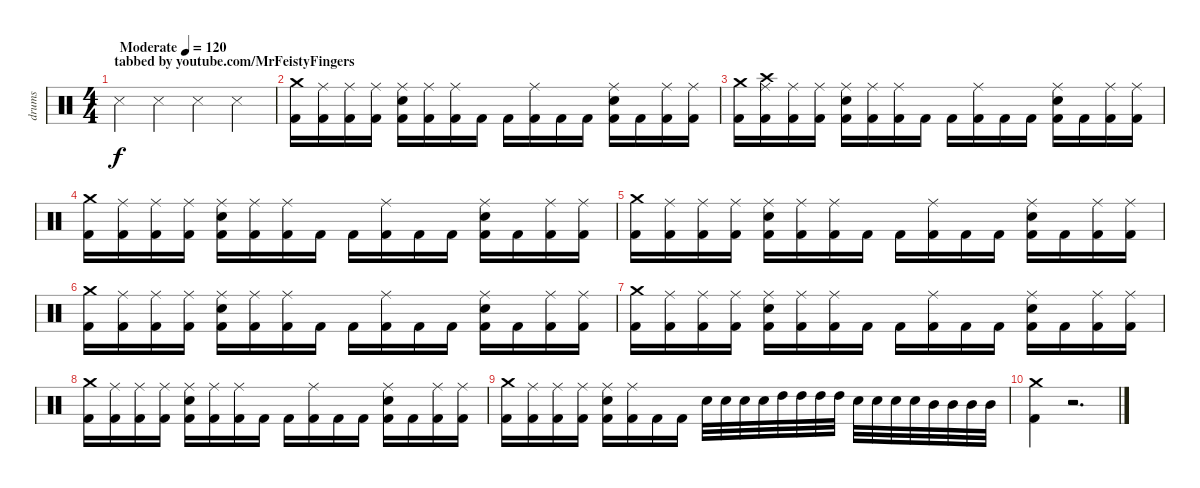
\track ("drums" "drums") {instrument percussion}
\staff {score}
\articulation defaults
\ts (4 4)
\section ("" "tabbed by youtube.com/MrFeistyFingers")
\tempo (120 "Moderate")
\clef neutral
\ks c "Snare (side stick) 3".4{dy f} "Snare (side stick) 3".4 "Snare (side stick) 3".4 "Snare (side stick) 3".4
|
("Crash medium (hit)" "Kick (hit) 2").16 ("Ride (middle)" "Kick (hit) 2").16 ("Ride (middle)" "Kick (hit) 2").16 ("Ride (middle)" "Kick (hit) 2").16 ("Ride (middle)" "Electric Snare (hit)" "Kick (hit) 2").16 ("Ride (middle)" "Kick (hit) 2").16 ("Ride (middle)" "Kick (hit) 2").16 "Kick (hit) 2".16 "Kick (hit) 2".16 ("Ride (middle)" "Kick (hit) 2").16 "Kick (hit) 2".16 "Kick (hit) 2".16 ("Ride (middle)" "Electric Snare (hit)" "Kick (hit) 2").16 "Kick (hit) 2".16 ("Ride (middle)" "Kick (hit) 2").16 ("Ride (middle)" "Kick (hit) 2").16 |
("Crash medium (hit)" "Kick (hit) 2").16 ("Crash high (hit)" "Ride (middle)" "Kick (hit) 2").16 ("Ride (middle)" "Kick (hit) 2").16 ("Ride (middle)" "Kick (hit) 2").16 ("Ride (middle)" "Electric Snare (hit)" "Kick (hit) 2").16 ("Ride (middle)" "Kick (hit) 2").16 ("Ride (middle)" "Kick (hit) 2").16 "Kick (hit) 2".16 "Kick (hit) 2".16 ("Ride (middle)" "Kick (hit) 2").16 "Kick (hit) 2".16 "Kick (hit) 2".16 ("Ride (middle)" "Electric Snare (hit)" "Kick (hit) 2").16 "Kick (hit) 2".16 ("Ride (middle)" "Kick (hit) 2").16 ("Ride (middle)" "Kick (hit) 2").16 |
("Crash medium (hit)" "Kick (hit) 2").16 ("Ride (middle)" "Kick (hit) 2").16 ("Ride (middle)" "Kick (hit) 2").16 ("Ride (middle)" "Kick (hit) 2").16 ("Ride (middle)" "Electric Snare (hit)" "Kick (hit) 2").16 ("Ride (middle)" "Kick (hit) 2").16 ("Ride (middle)" "Kick (hit) 2").16 "Kick (hit) 2".16 "Kick (hit) 2".16 ("Ride (middle)" "Kick (hit) 2").16 "Kick (hit) 2".16 "Kick (hit) 2".16 ("Ride (middle)" "Electric Snare (hit)" "Kick (hit) 2").16 "Kick (hit) 2".16 ("Ride (middle)" "Kick (hit) 2").16 ("Ride (middle)" "Kick (hit) 2").16 |
("Crash medium (hit)" "Kick (hit) 2").16 ("Ride (middle)" "Kick (hit) 2").16 ("Ride (middle)" "Kick (hit) 2").16 ("Ride (middle)" "Kick (hit) 2").16 ("Ride (middle)" "Electric Snare (hit)" "Kick (hit) 2").16 ("Ride (middle)" "Kick (hit) 2").16 ("Ride (middle)" "Kick (hit) 2").16 "Kick (hit) 2".16 "Kick (hit) 2".16 ("Ride (middle)" "Kick (hit) 2").16 "Kick (hit) 2".16 "Kick (hit) 2".16 ("Ride (middle)" "Electric Snare (hit)" "Kick (hit) 2").16 "Kick (hit) 2".16 ("Ride (middle)" "Kick (hit) 2").16 ("Ride (middle)" "Kick (hit) 2").16 |
("Crash medium (hit)" "Kick (hit) 2").16 ("Ride (middle)" "Kick (hit) 2").16 ("Ride (middle)" "Kick (hit) 2").16 ("Ride (middle)" "Kick (hit) 2").16 ("Ride (middle)" "Electric Snare (hit)" "Kick (hit) 2").16 ("Ride (middle)" "Kick (hit) 2").16 ("Ride (middle)" "Kick (hit) 2").16 "Kick (hit) 2".16 "Kick (hit) 2".16 ("Ride (middle)" "Kick (hit) 2").16 "Kick (hit) 2".16 "Kick (hit) 2".16 ("Ride (middle)" "Electric Snare (hit)" "Kick (hit) 2").16 "Kick (hit) 2".16 ("Ride (middle)" "Kick (hit) 2").16 ("Ride (middle)" "Kick (hit) 2").16 |
("Crash medium (hit)" "Kick (hit) 2").16 ("Ride (middle)" "Kick (hit) 2").16 ("Ride (middle)" "Kick (hit) 2").16 ("Ride (middle)" "Kick (hit) 2").16 ("Ride (middle)" "Electric Snare (hit)" "Kick (hit) 2").16 ("Ride (middle)" "Kick (hit) 2").16 ("Ride (middle)" "Kick (hit) 2").16 "Kick (hit) 2".16 "Kick (hit) 2".16 ("Ride (middle)" "Kick (hit) 2").16 "Kick (hit) 2".16 "Kick (hit) 2".16 ("Ride (middle)" "Electric Snare (hit)" "Kick (hit) 2").16 "Kick (hit) 2".16 ("Ride (middle)" "Kick (hit) 2").16 ("Ride (middle)" "Kick (hit) 2").16 |
("Crash medium (hit)" "Kick (hit) 2").16 ("Ride (middle)" "Kick (hit) 2").16 ("Ride (middle)" "Kick (hit) 2").16 ("Ride (middle)" "Kick (hit) 2").16 ("Ride (middle)" "Electric Snare (hit)" "Kick (hit) 2").16 ("Ride (middle)" "Kick (hit) 2").16 ("Ride (middle)" "Kick (hit) 2").16 "Kick (hit) 2".16 "Kick (hit) 2".16 ("Ride (middle)" "Kick (hit) 2").16 "Kick (hit) 2".16 "Kick (hit) 2".16 ("Ride (middle)" "Electric Snare (hit)" "Kick (hit) 2").16 "Kick (hit) 2".16 ("Ride (middle)" "Kick (hit) 2").16 ("Ride (middle)" "Kick (hit) 2").16 |
("Crash medium (hit)" "Kick (hit) 2").16 ("Ride (middle)" "Kick (hit) 2").16 ("Ride (middle)" "Kick (hit) 2").16 ("Ride (middle)" "Kick (hit) 2").16 ("Ride (middle)" "Electric Snare (hit)" "Kick (hit) 2").16 ("Ride (middle)" "Kick (hit) 2").16 "Kick (hit) 2".16 "Kick (hit) 2".16 "Electric Snare (hit)".32 "Electric Snare (hit)".32 "Electric Snare (hit)".32 "Electric Snare (hit)".32 "High Tom (hit)".32 "High Tom (hit)".32 "High Tom (hit)".32 "High Tom (hit)".32 "Electric Snare (hit)".32 "Electric Snare (hit)".32 "Electric Snare (hit)".32 "Electric Snare (hit)".32 "Mid Tom (hit)".32 "Mid Tom (hit)".32 "Mid Tom (hit)".32 "Mid Tom (hit)".32 |
("Crash medium (hit)" "Kick (hit) 2").4 r.2{d}
